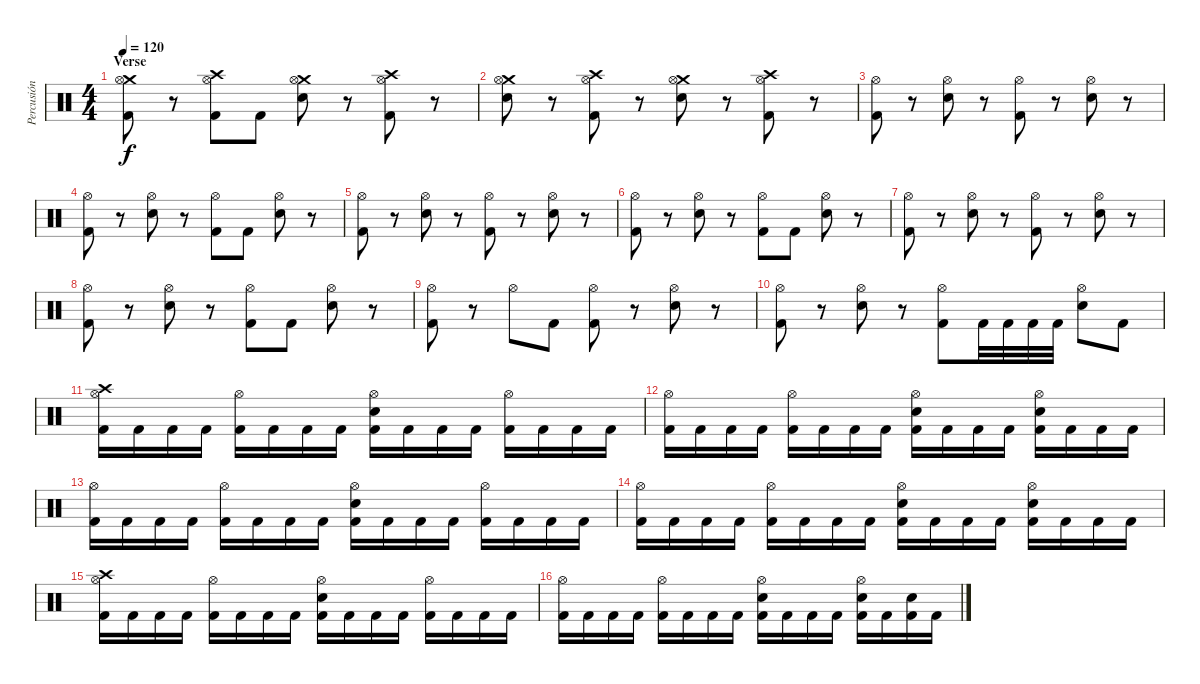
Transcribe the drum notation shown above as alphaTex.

\track ("Percusión" "Percusión") {instrument percussion}
\staff {score}
\articulation defaults
\ts (4 4)
\section ("" "Verse")
\tempo 120
\clef neutral
\ks c
("Crash medium (hit)" "Hi-Hat (open)" "Kick (hit) 2").8{dy f} r.8 ("Crash high (hit)" "Hi-Hat (open)" "Kick (hit) 2").8 "Kick (hit) 2".8 ("Crash medium (hit)" "Hi-Hat (open)" "Electric Snare (hit)").8 r.8 ("Crash high (hit)" "Hi-Hat (open)" "Kick (hit) 2").8 r.8 |
("Crash medium (hit)" "Hi-Hat (open)" "Electric Snare (hit)").8 r.8 ("Crash high (hit)" "Hi-Hat (open)" "Kick (hit) 2").8 r.8 ("Crash medium (hit)" "Hi-Hat (open)" "Electric Snare (hit)").8 r.8 ("Crash high (hit)" "Hi-Hat (open)" "Kick (hit) 2").8 r.8 |
("Hi-Hat (open)" "Kick (hit) 2").8 r.8 ("Hi-Hat (open)" "Electric Snare (hit)").8 r.8 ("Hi-Hat (open)" "Kick (hit) 2").8 r.8 ("Hi-Hat (open)" "Electric Snare (hit)").8 r.8 |
("Hi-Hat (open)" "Kick (hit) 2").8 r.8 ("Hi-Hat (open)" "Electric Snare (hit)").8 r.8 ("Hi-Hat (open)" "Kick (hit) 2").8 "Kick (hit) 2".8 ("Hi-Hat (open)" "Electric Snare (hit)").8 r.8 |
("Hi-Hat (open)" "Kick (hit) 2").8 r.8 ("Hi-Hat (open)" "Electric Snare (hit)").8 r.8 ("Hi-Hat (open)" "Kick (hit) 2").8 r.8 ("Hi-Hat (open)" "Electric Snare (hit)").8 r.8 |
("Hi-Hat (open)" "Kick (hit) 2").8 r.8 ("Hi-Hat (open)" "Electric Snare (hit)").8 r.8 ("Hi-Hat (open)" "Kick (hit) 2").8 "Kick (hit) 2".8 ("Hi-Hat (open)" "Electric Snare (hit)").8 r.8 |
("Hi-Hat (open)" "Kick (hit) 2").8 r.8 ("Hi-Hat (open)" "Electric Snare (hit)").8 r.8 ("Hi-Hat (open)" "Kick (hit) 2").8 r.8 ("Hi-Hat (open)" "Electric Snare (hit)").8 r.8 |
("Hi-Hat (open)" "Kick (hit) 2").8 r.8 ("Hi-Hat (open)" "Electric Snare (hit)").8 r.8 ("Hi-Hat (open)" "Kick (hit) 2").8 "Kick (hit) 2".8 ("Hi-Hat (open)" "Electric Snare (hit)").8 r.8 |
("Hi-Hat (open)" "Kick (hit) 2").8 r.8 "Hi-Hat (open)".8 "Kick (hit) 2".8 ("Hi-Hat (open)" "Kick (hit) 2").8 r.8 ("Hi-Hat (open)" "Electric Snare (hit)").8 r.8 |
("Hi-Hat (open)" "Kick (hit) 2").8 r.8 ("Hi-Hat (open)" "Electric Snare (hit)").8 r.8 ("Hi-Hat (open)" "Kick (hit) 2").8 "Kick (hit) 2".32 "Kick (hit) 2".32 "Kick (hit) 2".32 "Kick (hit) 2".32 ("Hi-Hat (open)" "Electric Snare (hit)").8 "Kick (hit) 2".8 |
("Crash high (hit)" "Hi-Hat (open)" "Kick (hit) 2").16 "Kick (hit) 2".16 "Kick (hit) 2".16 "Kick (hit) 2".16 ("Hi-Hat (open)" "Kick (hit) 2").16 "Kick (hit) 2".16 "Kick (hit) 2".16 "Kick (hit) 2".16 ("Hi-Hat (open)" "Electric Snare (hit)" "Kick (hit) 2").16 "Kick (hit) 2".16 "Kick (hit) 2".16 "Kick (hit) 2".16 ("Hi-Hat (open)" "Kick (hit) 2").16 "Kick (hit) 2".16 "Kick (hit) 2".16 "Kick (hit) 2".16 |
("Hi-Hat (open)" "Kick (hit) 2").16 "Kick (hit) 2".16 "Kick (hit) 2".16 "Kick (hit) 2".16 ("Hi-Hat (open)" "Kick (hit) 2").16 "Kick (hit) 2".16 "Kick (hit) 2".16 "Kick (hit) 2".16 ("Hi-Hat (open)" "Electric Snare (hit)" "Kick (hit) 2").16 "Kick (hit) 2".16 "Kick (hit) 2".16 "Kick (hit) 2".16 ("Hi-Hat (open)" "Electric Snare (hit)" "Kick (hit) 2").16 "Kick (hit) 2".16 "Kick (hit) 2".16 "Kick (hit) 2".16 |
("Hi-Hat (open)" "Kick (hit) 2").16 "Kick (hit) 2".16 "Kick (hit) 2".16 "Kick (hit) 2".16 ("Hi-Hat (open)" "Kick (hit) 2").16 "Kick (hit) 2".16 "Kick (hit) 2".16 "Kick (hit) 2".16 ("Hi-Hat (open)" "Electric Snare (hit)" "Kick (hit) 2").16 "Kick (hit) 2".16 "Kick (hit) 2".16 "Kick (hit) 2".16 ("Hi-Hat (open)" "Kick (hit) 2").16 "Kick (hit) 2".16 "Kick (hit) 2".16 "Kick (hit) 2".16 |
("Hi-Hat (open)" "Kick (hit) 2").16 "Kick (hit) 2".16 "Kick (hit) 2".16 "Kick (hit) 2".16 ("Hi-Hat (open)" "Kick (hit) 2").16 "Kick (hit) 2".16 "Kick (hit) 2".16 "Kick (hit) 2".16 ("Hi-Hat (open)" "Electric Snare (hit)" "Kick (hit) 2").16 "Kick (hit) 2".16 "Kick (hit) 2".16 "Kick (hit) 2".16 ("Hi-Hat (open)" "Electric Snare (hit)" "Kick (hit) 2").16 "Kick (hit) 2".16 "Kick (hit) 2".16 "Kick (hit) 2".16 |
("Crash high (hit)" "Hi-Hat (open)" "Kick (hit) 2").16 "Kick (hit) 2".16 "Kick (hit) 2".16 "Kick (hit) 2".16 ("Hi-Hat (open)" "Kick (hit) 2").16 "Kick (hit) 2".16 "Kick (hit) 2".16 "Kick (hit) 2".16 ("Hi-Hat (open)" "Electric Snare (hit)" "Kick (hit) 2").16 "Kick (hit) 2".16 "Kick (hit) 2".16 "Kick (hit) 2".16 ("Hi-Hat (open)" "Kick (hit) 2").16 "Kick (hit) 2".16 "Kick (hit) 2".16 "Kick (hit) 2".16 |
("Hi-Hat (open)" "Kick (hit) 2").16 "Kick (hit) 2".16 "Kick (hit) 2".16 "Kick (hit) 2".16 ("Hi-Hat (open)" "Kick (hit) 2").16 "Kick (hit) 2".16 "Kick (hit) 2".16 "Kick (hit) 2".16 ("Hi-Hat (open)" "Electric Snare (hit)" "Kick (hit) 2").16 "Kick (hit) 2".16 "Kick (hit) 2".16 "Kick (hit) 2".16 ("Hi-Hat (open)" "Electric Snare (hit)" "Kick (hit) 2").16 "Kick (hit) 2".16 ("Electric Snare (hit)" "Kick (hit) 2").16 "Kick (hit) 2".16
